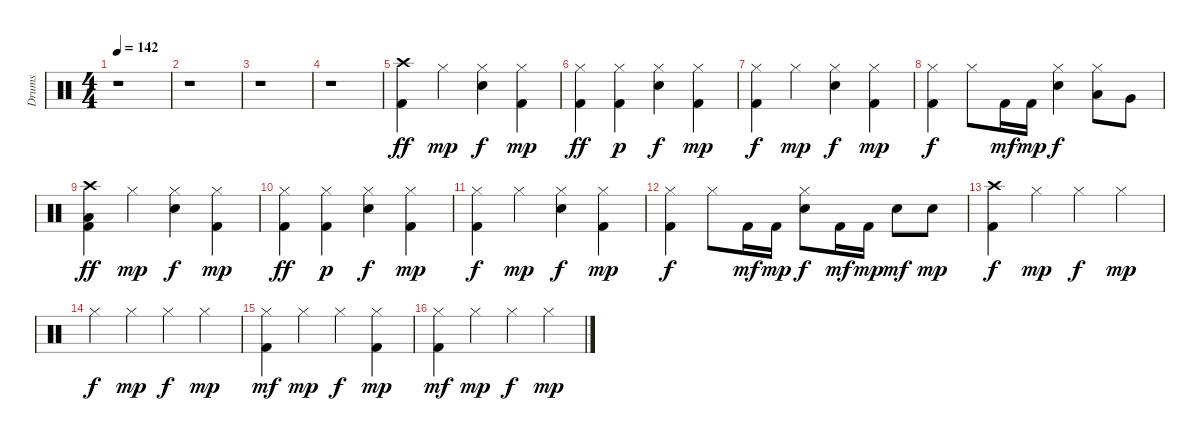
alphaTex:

\track ("Drums" "Drums") {instrument percussion}
\staff {score}
\articulation defaults
\ts (4 4)
\tempo 142
\clef neutral
\ks c
r.1{dy ff} |
r.1 |
r.1 |
r.1 |
("Crash high (hit)" "Kick (hit) 2").4 "Hi-Hat (closed)".4{dy mp} ("Hi-Hat (closed)" "Snare (hit) 2").4{dy f} ("Hi-Hat (closed)" "Kick (hit) 2").4{dy mp} |
("Hi-Hat (closed)" "Kick (hit) 2").4{dy ff} ("Hi-Hat (closed)" "Kick (hit) 2").4{dy p} ("Hi-Hat (closed)" "Snare (hit) 2").4{dy f} ("Hi-Hat (closed)" "Kick (hit) 2").4{dy mp} |
("Hi-Hat (closed)" "Kick (hit) 2").4{dy f} "Hi-Hat (closed)".4{dy mp} ("Hi-Hat (closed)" "Snare (hit) 2").4{dy f} ("Hi-Hat (closed)" "Kick (hit) 2").4{dy mp} |
("Hi-Hat (closed)" "Kick (hit) 2").4{dy f} "Hi-Hat (closed)".8 "Kick (hit) 2".16{dy mf} "Kick (hit) 2".16{dy mp} ("Hi-Hat (closed)" "Snare (hit) 2").4{dy f} ("Hi-Hat (closed)" "Low Tom (hit)").8 "Very Low Tom (hit)".8 |
("Crash high (hit)" "Low Floor Tom (hit)" "Kick (hit) 2").4{dy ff} "Hi-Hat (closed)".4{dy mp} ("Hi-Hat (closed)" "Snare (hit) 2").4{dy f} ("Hi-Hat (closed)" "Kick (hit) 2").4{dy mp} |
("Hi-Hat (closed)" "Kick (hit) 2").4{dy ff} ("Hi-Hat (closed)" "Kick (hit) 2").4{dy p} ("Hi-Hat (closed)" "Snare (hit) 2").4{dy f} ("Hi-Hat (closed)" "Kick (hit) 2").4{dy mp} |
("Hi-Hat (closed)" "Kick (hit) 2").4{dy f} "Hi-Hat (closed)".4{dy mp} ("Hi-Hat (closed)" "Snare (hit) 2").4{dy f} ("Hi-Hat (closed)" "Kick (hit) 2").4{dy mp} |
("Hi-Hat (closed)" "Kick (hit) 2").4{dy f} "Hi-Hat (closed)".8 "Kick (hit) 2".16{dy mf} "Kick (hit) 2".16{dy mp} ("Hi-Hat (closed)" "Snare (hit) 2").8{dy f} "Kick (hit) 2".16{dy mf} "Kick (hit) 2".16{dy mp} "Snare (hit) 2".8{dy mf} "Snare (hit) 2".8{dy mp} |
("Crash high (hit)" "Kick (hit) 2").4{dy f} "Hi-Hat (closed)".4{dy mp} "Hi-Hat (closed)".4{dy f} "Hi-Hat (closed)".4{dy mp} |
"Hi-Hat (closed)".4{dy f} "Hi-Hat (closed)".4{dy mp} "Hi-Hat (closed)".4{dy f} "Hi-Hat (closed)".4{dy mp} |
("Hi-Hat (closed)" "Kick (hit) 2").4{dy mf} "Hi-Hat (closed)".4{dy mp} "Hi-Hat (closed)".4{dy f} ("Hi-Hat (closed)" "Kick (hit) 2").4{dy mp} |
("Hi-Hat (closed)" "Kick (hit) 2").4{dy mf} "Hi-Hat (closed)".4{dy mp} "Hi-Hat (closed)".4{dy f} "Hi-Hat (closed)".4{dy mp}
